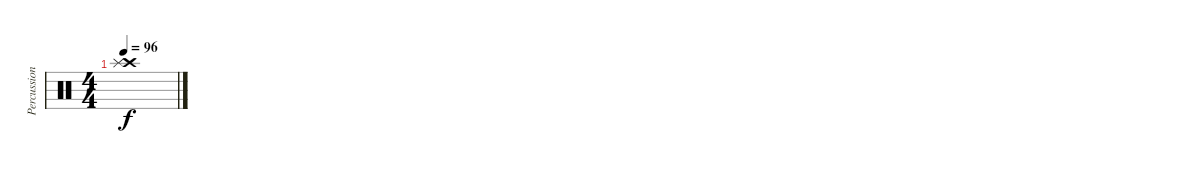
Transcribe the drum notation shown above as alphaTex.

\track ("Percussion" "Percussion") {instrument percussion}
\staff {score}
\articulation defaults
\ts (4 4)
\tempo 96
\clef neutral
\ks c
("Crash high (hit)" "Splash (hit)").1{dy f}
